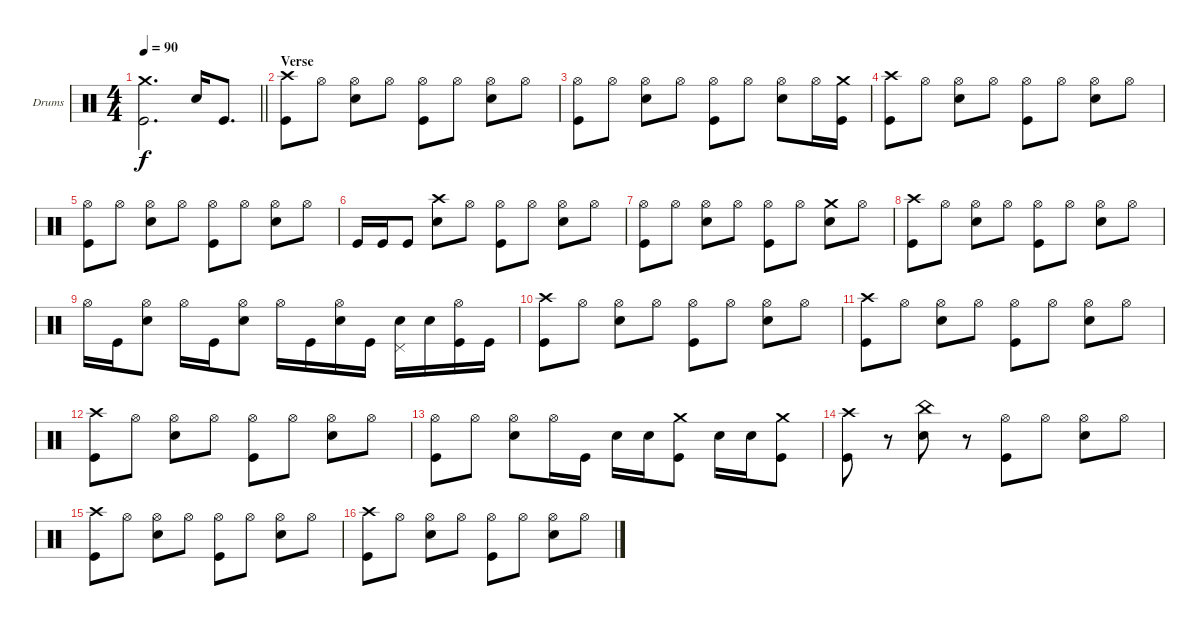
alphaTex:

\bracketExtendMode groupsimilarinstruments
\firstSystemTrackNameOrientation horizontal
\otherSystemsTrackNameOrientation horizontal
\track ("Drumkit" "Drums") {instrument percussion}
\staff {score}
\articulation defaults
\ts (4 4)
\tempo 90
\clef neutral
\barLineRight lightlight
\ks c
("Crash medium (hit)" "Kick (hit)").2{d dy f} "Snare (hit) 2".16 "Kick (hit)".8{d} |
\section ("" "Verse")
("Crash high (hit)" "Kick (hit)").8 "Hi-Hat (open)".8 ("Hi-Hat (open)" "Snare (hit) 2").8 "Hi-Hat (open)".8 ("Hi-Hat (open)" "Kick (hit)").8 "Hi-Hat (open)".8 ("Hi-Hat (open)" "Snare (hit) 2").8 "Hi-Hat (open)".8 |
("Hi-Hat (open)" "Kick (hit)").8 "Hi-Hat (open)".8 ("Hi-Hat (open)" "Snare (hit) 2").8 "Hi-Hat (open)".8 ("Hi-Hat (open)" "Kick (hit)").8 "Hi-Hat (open)".8 ("Hi-Hat (open)" "Snare (hit) 2").8 "Hi-Hat (open)".16 ("Crash medium (hit)" "Kick (hit)").16 |
("Crash high (hit)" "Kick (hit)").8 "Hi-Hat (open)".8 ("Hi-Hat (open)" "Snare (hit) 2").8 "Hi-Hat (open)".8 ("Hi-Hat (open)" "Kick (hit)").8 "Hi-Hat (open)".8 ("Hi-Hat (open)" "Snare (hit) 2").8 "Hi-Hat (open)".8 |
("Hi-Hat (open)" "Kick (hit)").8 "Hi-Hat (open)".8 ("Hi-Hat (open)" "Snare (hit) 2").8 "Hi-Hat (open)".8 ("Hi-Hat (open)" "Kick (hit)").8 "Hi-Hat (open)".8 ("Hi-Hat (open)" "Snare (hit) 2").8 "Hi-Hat (open)".8 |
"Kick (hit)".16 "Kick (hit)".16 "Kick (hit)".8 ("Crash high (hit)" "Snare (hit) 2").8 "Hi-Hat (open)".8 ("Hi-Hat (open)" "Kick (hit)").8 "Hi-Hat (open)".8 ("Hi-Hat (open)" "Snare (hit) 2").8 "Hi-Hat (open)".8 |
("Hi-Hat (open)" "Kick (hit)").8 "Hi-Hat (open)".8 ("Hi-Hat (open)" "Snare (hit) 2").8 "Hi-Hat (open)".8 ("Hi-Hat (open)" "Kick (hit)").8 "Hi-Hat (open)".8 ("Crash medium (hit)" "Snare (hit) 2").8 "Hi-Hat (open)".8 |
("Crash high (hit)" "Kick (hit)").8 "Hi-Hat (open)".8 ("Hi-Hat (open)" "Snare (hit) 2").8 "Hi-Hat (open)".8 ("Hi-Hat (open)" "Kick (hit)").8 "Hi-Hat (open)".8 ("Hi-Hat (open)" "Snare (hit) 2").8 "Hi-Hat (open)".8 |
"Hi-Hat (open)".16 "Kick (hit)".16 ("Hi-Hat (open)" "Snare (hit) 2").8 "Hi-Hat (open)".16 "Kick (hit)".16 ("Hi-Hat (open)" "Snare (hit) 2").8 "Hi-Hat (open)".16 "Kick (hit)".16 ("Hi-Hat (open)" "Snare (hit) 2").16 "Kick (hit)".16 ("Snare (hit) 2" "Pedal Hi-Hat (hit)").16 "Snare (hit) 2".16 ("Hi-Hat (open)" "Kick (hit)").16 "Kick (hit)".16 |
("Crash high (hit)" "Kick (hit)").8 "Hi-Hat (open)".8 ("Hi-Hat (open)" "Snare (hit) 2").8 "Hi-Hat (open)".8 ("Hi-Hat (open)" "Kick (hit)").8 "Hi-Hat (open)".8 ("Hi-Hat (open)" "Snare (hit) 2").8 "Hi-Hat (open)".8 |
("Crash high (hit)" "Kick (hit)").8 "Hi-Hat (open)".8 ("Hi-Hat (open)" "Snare (hit) 2").8 "Hi-Hat (open)".8 ("Hi-Hat (open)" "Kick (hit)").8 "Hi-Hat (open)".8 ("Hi-Hat (open)" "Snare (hit) 2").8 "Hi-Hat (open)".8 |
("Crash high (hit)" "Kick (hit)").8 "Hi-Hat (open)".8 ("Hi-Hat (open)" "Snare (hit) 2").8 "Hi-Hat (open)".8 ("Hi-Hat (open)" "Kick (hit)").8 "Hi-Hat (open)".8 ("Hi-Hat (open)" "Snare (hit) 2").8 "Hi-Hat (open)".8 |
("Hi-Hat (open)" "Kick (hit)").8 "Hi-Hat (open)".8 ("Hi-Hat (open)" "Snare (hit) 2").8 "Hi-Hat (open)".16 "Kick (hit)".16 "Snare (hit) 2".16 "Snare (hit) 2".16 ("Crash medium (hit)" "Kick (hit)").8 "Snare (hit) 2".16 "Snare (hit) 2".16 ("Crash medium (hit)" "Kick (hit)").8 |
("Crash high (hit)" "Kick (hit)").8 r.8 ("China (hit)" "Snare (hit) 2").8 r.8 ("Hi-Hat (open)" "Kick (hit)").8 "Hi-Hat (open)".8 ("Hi-Hat (open)" "Snare (hit) 2").8 "Hi-Hat (open)".8 |
("Crash high (hit)" "Kick (hit)").8 "Hi-Hat (open)".8 ("Hi-Hat (open)" "Snare (hit) 2").8 "Hi-Hat (open)".8 ("Hi-Hat (open)" "Kick (hit)").8 "Hi-Hat (open)".8 ("Hi-Hat (open)" "Snare (hit) 2").8 "Hi-Hat (open)".8 |
("Crash high (hit)" "Kick (hit)").8 "Hi-Hat (open)".8 ("Hi-Hat (open)" "Snare (hit) 2").8 "Hi-Hat (open)".8 ("Hi-Hat (open)" "Kick (hit)").8 "Hi-Hat (open)".8 ("Hi-Hat (open)" "Snare (hit) 2").8 "Hi-Hat (open)".8
